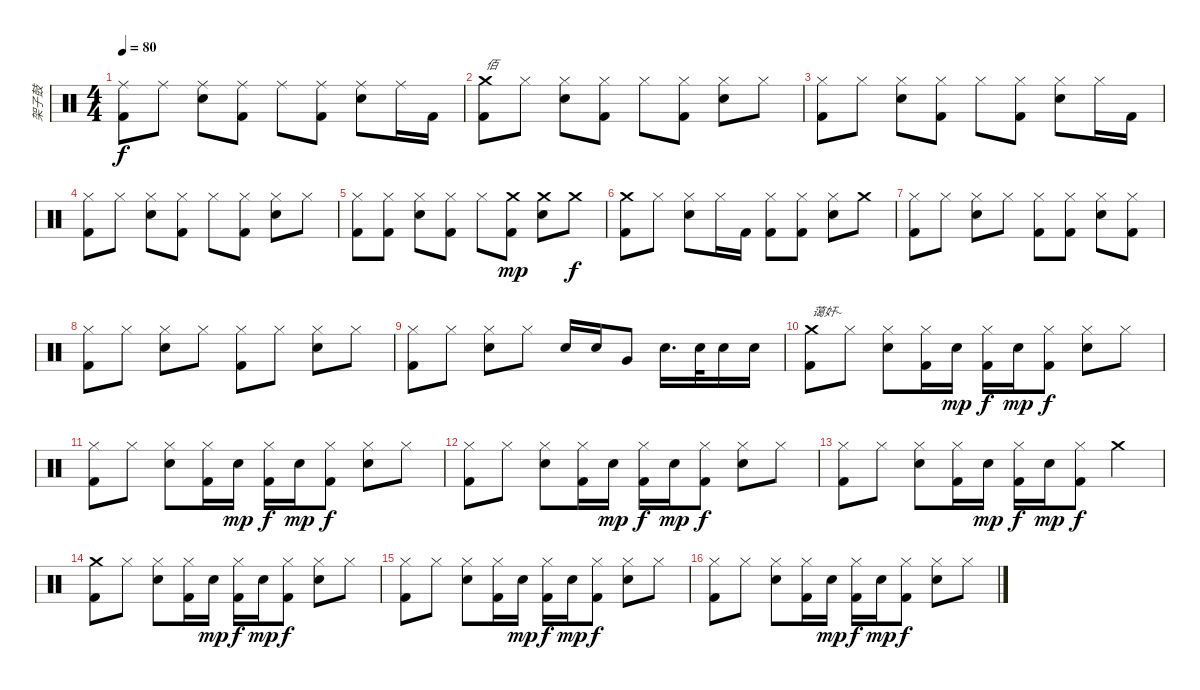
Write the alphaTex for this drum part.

\track ("架子鼓" "架子鼓") {instrument percussion}
\staff {score}
\articulation defaults
\ts (4 4)
\tempo 80
\clef neutral
\ks c
("Ride (middle)" "Kick (hit) 2").8{dy f} "Ride (middle)".8 ("Ride (middle)" "Snare (hit) 2").8 ("Ride (middle)" "Kick (hit) 2").8 "Ride (middle)".8 ("Ride (middle)" "Kick (hit) 2").8 ("Ride (middle)" "Snare (hit) 2").8 "Ride (middle)".16 "Kick (hit) 2".16 |
("Crash medium (hit)" "Kick (hit) 2").8{txt "佰"} "Hi-Hat (closed)".8 ("Hi-Hat (closed)" "Snare (hit) 2").8 ("Hi-Hat (closed)" "Kick (hit) 2").8 "Hi-Hat (closed)".8 ("Hi-Hat (closed)" "Kick (hit) 2").8 ("Hi-Hat (closed)" "Snare (hit) 2").8 "Hi-Hat (closed)".8 |
("Hi-Hat (closed)" "Kick (hit) 2").8 "Hi-Hat (closed)".8 ("Hi-Hat (closed)" "Snare (hit) 2").8 ("Hi-Hat (closed)" "Kick (hit) 2").8 "Hi-Hat (closed)".8 ("Hi-Hat (closed)" "Kick (hit) 2").8 ("Hi-Hat (closed)" "Snare (hit) 2").8 "Hi-Hat (closed)".16 "Kick (hit) 2".16 |
("Hi-Hat (closed)" "Kick (hit) 2").8 "Hi-Hat (closed)".8 ("Hi-Hat (closed)" "Snare (hit) 2").8 ("Hi-Hat (closed)" "Kick (hit) 2").8 "Hi-Hat (closed)".8 ("Hi-Hat (closed)" "Kick (hit) 2").8 ("Hi-Hat (closed)" "Snare (hit) 2").8 "Hi-Hat (closed)".8 |
("Hi-Hat (closed)" "Kick (hit) 2").8 ("Hi-Hat (closed)" "Kick (hit) 2").8 ("Hi-Hat (closed)" "Snare (hit) 2").8 ("Hi-Hat (closed)" "Kick (hit) 2").8 "Hi-Hat (closed)".8 ("Crash medium (hit)" "Kick (hit) 2").8{dy mp} ("Crash medium (hit)" "Snare (hit) 2").8 "Crash medium (hit)".8{dy f} |
("Crash medium (hit)" "Kick (hit) 2").8 "Hi-Hat (closed)".8 ("Hi-Hat (closed)" "Snare (hit) 2").8 "Hi-Hat (closed)".16 "Kick (hit) 2".16 ("Hi-Hat (closed)" "Kick (hit) 2").8 ("Hi-Hat (closed)" "Kick (hit) 2").8 ("Hi-Hat (closed)" "Snare (hit) 2").8 "Crash medium (hit)".8 |
("Hi-Hat (closed)" "Kick (hit) 2").8 "Hi-Hat (closed)".8 ("Hi-Hat (closed)" "Snare (hit) 2").8 "Hi-Hat (closed)".8 ("Hi-Hat (closed)" "Kick (hit) 2").8 ("Hi-Hat (closed)" "Kick (hit) 2").8 ("Hi-Hat (closed)" "Snare (hit) 2").8 ("Hi-Hat (closed)" "Kick (hit) 2").8 |
("Hi-Hat (closed)" "Kick (hit) 2").8 "Hi-Hat (closed)".8 ("Hi-Hat (closed)" "Snare (hit) 2").8 "Hi-Hat (closed)".8 ("Hi-Hat (closed)" "Kick (hit) 2").8 "Hi-Hat (closed)".8 ("Hi-Hat (closed)" "Snare (hit) 2").8 "Hi-Hat (closed)".8 |
("Hi-Hat (closed)" "Kick (hit) 2").8 "Hi-Hat (closed)".8 ("Hi-Hat (closed)" "Snare (hit) 2").8 "Hi-Hat (closed)".8 "Snare (hit) 2".16 "Snare (hit) 2".16 "Very Low Tom (hit)".8 "Snare (hit) 2".16{d} "Snare (hit) 2".32 "Snare (hit) 2".16 "Snare (hit) 2".16 |
("Crash medium (hit)" "Kick (hit) 2").8{txt "蔼奸~"} "Hi-Hat (closed)".8 ("Hi-Hat (closed)" "Snare (hit) 2").8 ("Hi-Hat (closed)" "Kick (hit) 2").16 "Snare (hit) 2".16{dy mp} ("Hi-Hat (closed)" "Kick (hit) 2").16{dy f} "Snare (hit) 2".16{dy mp} ("Hi-Hat (closed)" "Kick (hit) 2").8{dy f} ("Hi-Hat (closed)" "Snare (hit) 2").8 "Hi-Hat (closed)".8 |
("Hi-Hat (closed)" "Kick (hit) 2").8 "Hi-Hat (closed)".8 ("Hi-Hat (closed)" "Snare (hit) 2").8 ("Hi-Hat (closed)" "Kick (hit) 2").16 "Snare (hit) 2".16{dy mp} ("Hi-Hat (closed)" "Kick (hit) 2").16{dy f} "Snare (hit) 2".16{dy mp} ("Hi-Hat (closed)" "Kick (hit) 2").8{dy f} ("Hi-Hat (closed)" "Snare (hit) 2").8 "Hi-Hat (closed)".8 |
("Hi-Hat (closed)" "Kick (hit) 2").8 "Hi-Hat (closed)".8 ("Hi-Hat (closed)" "Snare (hit) 2").8 ("Hi-Hat (closed)" "Kick (hit) 2").16 "Snare (hit) 2".16{dy mp} ("Hi-Hat (closed)" "Kick (hit) 2").16{dy f} "Snare (hit) 2".16{dy mp} ("Hi-Hat (closed)" "Kick (hit) 2").8{dy f} ("Hi-Hat (closed)" "Snare (hit) 2").8 "Hi-Hat (closed)".8 |
("Hi-Hat (closed)" "Kick (hit) 2").8 "Hi-Hat (closed)".8 ("Hi-Hat (closed)" "Snare (hit) 2").8 ("Hi-Hat (closed)" "Kick (hit) 2").16 "Snare (hit) 2".16{dy mp} ("Hi-Hat (closed)" "Kick (hit) 2").16{dy f} "Snare (hit) 2".16{dy mp} ("Hi-Hat (closed)" "Kick (hit) 2").8{dy f} "Crash medium (hit)".4 |
("Crash medium (hit)" "Kick (hit) 2").8 "Hi-Hat (closed)".8 ("Hi-Hat (closed)" "Snare (hit) 2").8 ("Hi-Hat (closed)" "Kick (hit) 2").16 "Snare (hit) 2".16{dy mp} ("Hi-Hat (closed)" "Kick (hit) 2").16{dy f} "Snare (hit) 2".16{dy mp} ("Hi-Hat (closed)" "Kick (hit) 2").8{dy f} ("Hi-Hat (closed)" "Snare (hit) 2").8 "Hi-Hat (closed)".8 |
("Hi-Hat (closed)" "Kick (hit) 2").8 "Hi-Hat (closed)".8 ("Hi-Hat (closed)" "Snare (hit) 2").8 ("Hi-Hat (closed)" "Kick (hit) 2").16 "Snare (hit) 2".16{dy mp} ("Hi-Hat (closed)" "Kick (hit) 2").16{dy f} "Snare (hit) 2".16{dy mp} ("Hi-Hat (closed)" "Kick (hit) 2").8{dy f} ("Hi-Hat (closed)" "Snare (hit) 2").8 "Hi-Hat (closed)".8 |
("Hi-Hat (closed)" "Kick (hit) 2").8 "Hi-Hat (closed)".8 ("Hi-Hat (closed)" "Snare (hit) 2").8 ("Hi-Hat (closed)" "Kick (hit) 2").16 "Snare (hit) 2".16{dy mp} ("Hi-Hat (closed)" "Kick (hit) 2").16{dy f} "Snare (hit) 2".16{dy mp} ("Hi-Hat (closed)" "Kick (hit) 2").8{dy f} ("Hi-Hat (closed)" "Snare (hit) 2").8 "Hi-Hat (closed)".8
